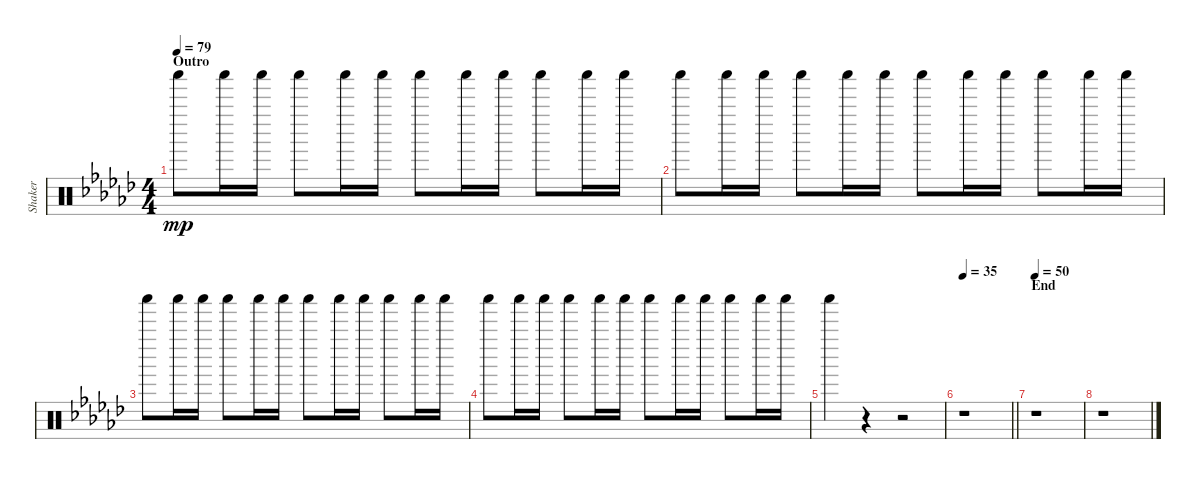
\track ("Shaker" "Shaker") {instrument percussion}
\staff {score}
\articulation defaults
\ts (4 4)
\section ("" "Outro")
\tempo 79
\clef neutral
\ks gb "Shaker (hit)".8{dy mp} "Shaker (hit)".16 "Shaker (hit)".16 "Shaker (hit)".8 "Shaker (hit)".16 "Shaker (hit)".16 "Shaker (hit)".8 "Shaker (hit)".16 "Shaker (hit)".16 "Shaker (hit)".8 "Shaker (hit)".16 "Shaker (hit)".16
|
"Shaker (hit)".8 "Shaker (hit)".16 "Shaker (hit)".16 "Shaker (hit)".8 "Shaker (hit)".16 "Shaker (hit)".16 "Shaker (hit)".8 "Shaker (hit)".16 "Shaker (hit)".16 "Shaker (hit)".8 "Shaker (hit)".16 "Shaker (hit)".16 |
"Shaker (hit)".8 "Shaker (hit)".16 "Shaker (hit)".16 "Shaker (hit)".8 "Shaker (hit)".16 "Shaker (hit)".16 "Shaker (hit)".8 "Shaker (hit)".16 "Shaker (hit)".16 "Shaker (hit)".8 "Shaker (hit)".16 "Shaker (hit)".16 |
"Shaker (hit)".8 "Shaker (hit)".16 "Shaker (hit)".16 "Shaker (hit)".8 "Shaker (hit)".16 "Shaker (hit)".16 "Shaker (hit)".8 "Shaker (hit)".16 "Shaker (hit)".16 "Shaker (hit)".8 "Shaker (hit)".16 "Shaker (hit)".16 |
"Shaker (hit)".4 r.4 r.2 |
\tempo 35
\barLineRight lightlight
r.1 |
\section ("" "End")
\tempo 50
r.1 |
r.1
